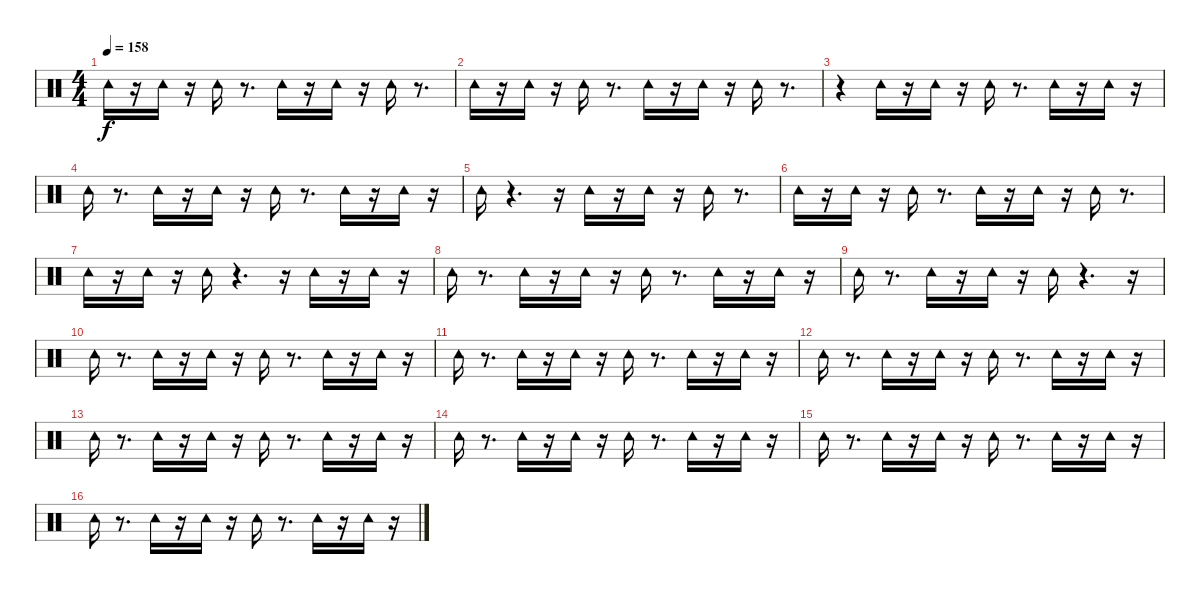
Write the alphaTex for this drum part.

\track "" {instrument percussion}
\staff {score}
\articulation defaults
\ts (4 4)
\tempo 158
\clef neutral
\ks c "Tambourine (hit)".16{dy f}
r.16 "Tambourine (hit)".16 r.16 "Tambourine (hit)".16 r.8{d} "Tambourine (hit)".16 r.16 "Tambourine (hit)".16 r.16 "Tambourine (hit)".16 r.8{d} |
"Tambourine (hit)".16 r.16 "Tambourine (hit)".16 r.16 "Tambourine (hit)".16 r.8{d} "Tambourine (hit)".16 r.16 "Tambourine (hit)".16 r.16 "Tambourine (hit)".16 r.8{d} |
r.4 "Tambourine (hit)".16 r.16 "Tambourine (hit)".16 r.16 "Tambourine (hit)".16 r.8{d} "Tambourine (hit)".16 r.16 "Tambourine (hit)".16 r.16 |
"Tambourine (hit)".16 r.8{d} "Tambourine (hit)".16 r.16 "Tambourine (hit)".16 r.16 "Tambourine (hit)".16 r.8{d} "Tambourine (hit)".16 r.16 "Tambourine (hit)".16 r.16 |
"Tambourine (hit)".16 r.4{d} r.16 "Tambourine (hit)".16 r.16 "Tambourine (hit)".16 r.16 "Tambourine (hit)".16 r.8{d} |
"Tambourine (hit)".16 r.16 "Tambourine (hit)".16 r.16 "Tambourine (hit)".16 r.8{d} "Tambourine (hit)".16 r.16 "Tambourine (hit)".16 r.16 "Tambourine (hit)".16 r.8{d} |
"Tambourine (hit)".16 r.16 "Tambourine (hit)".16 r.16 "Tambourine (hit)".16 r.4{d} r.16 "Tambourine (hit)".16 r.16 "Tambourine (hit)".16 r.16 |
"Tambourine (hit)".16 r.8{d} "Tambourine (hit)".16 r.16 "Tambourine (hit)".16 r.16 "Tambourine (hit)".16 r.8{d} "Tambourine (hit)".16 r.16 "Tambourine (hit)".16 r.16 |
"Tambourine (hit)".16 r.8{d} "Tambourine (hit)".16 r.16 "Tambourine (hit)".16 r.16 "Tambourine (hit)".16 r.4{d} r.16 |
"Tambourine (hit)".16 r.8{d} "Tambourine (hit)".16 r.16 "Tambourine (hit)".16 r.16 "Tambourine (hit)".16 r.8{d} "Tambourine (hit)".16 r.16 "Tambourine (hit)".16 r.16 |
"Tambourine (hit)".16 r.8{d} "Tambourine (hit)".16 r.16 "Tambourine (hit)".16 r.16 "Tambourine (hit)".16 r.8{d} "Tambourine (hit)".16 r.16 "Tambourine (hit)".16 r.16 |
"Tambourine (hit)".16 r.8{d} "Tambourine (hit)".16 r.16 "Tambourine (hit)".16 r.16 "Tambourine (hit)".16 r.8{d} "Tambourine (hit)".16 r.16 "Tambourine (hit)".16 r.16 |
"Tambourine (hit)".16 r.8{d} "Tambourine (hit)".16 r.16 "Tambourine (hit)".16 r.16 "Tambourine (hit)".16 r.8{d} "Tambourine (hit)".16 r.16 "Tambourine (hit)".16 r.16 |
"Tambourine (hit)".16 r.8{d} "Tambourine (hit)".16 r.16 "Tambourine (hit)".16 r.16 "Tambourine (hit)".16 r.8{d} "Tambourine (hit)".16 r.16 "Tambourine (hit)".16 r.16 |
"Tambourine (hit)".16 r.8{d} "Tambourine (hit)".16 r.16 "Tambourine (hit)".16 r.16 "Tambourine (hit)".16 r.8{d} "Tambourine (hit)".16 r.16 "Tambourine (hit)".16 r.16 |
"Tambourine (hit)".16 r.8{d} "Tambourine (hit)".16 r.16 "Tambourine (hit)".16 r.16 "Tambourine (hit)".16 r.8{d} "Tambourine (hit)".16 r.16 "Tambourine (hit)".16 r.16
